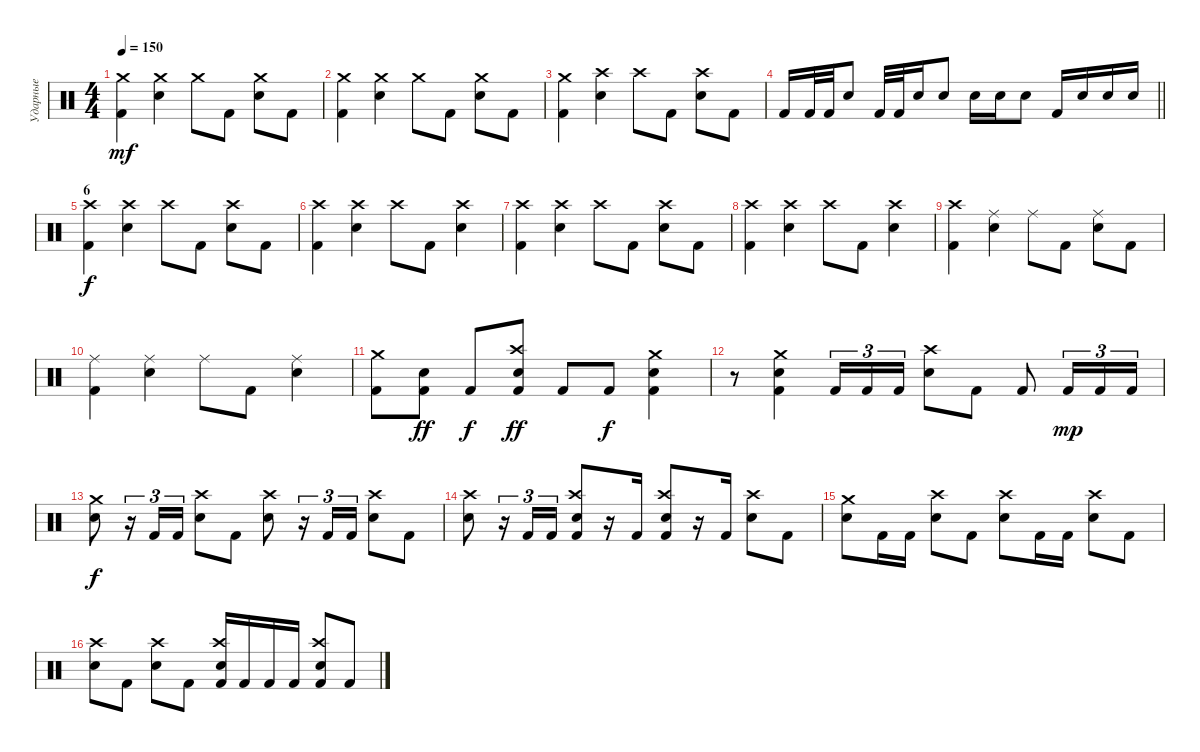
\track ("Ударные" "Ударные") {instrument percussion}
\staff {score}
\articulation defaults
\ts (4 4)
\tempo 150
\clef neutral
\ks c
("Crash medium (hit)" "Kick (hit) 2").4{dy mf} ("Crash medium (hit)" "Electric Snare (hit)").4 "Crash medium (hit)".8 "Kick (hit) 2".8 ("Crash medium (hit)" "Electric Snare (hit)").8 "Kick (hit) 2".8 |
("Crash medium (hit)" "Kick (hit) 2").4 ("Crash medium (hit)" "Electric Snare (hit)").4 "Crash medium (hit)".8 "Kick (hit) 2".8 ("Crash medium (hit)" "Electric Snare (hit)").8 "Kick (hit) 2".8 |
("Crash medium (hit)" "Kick (hit) 2").4 ("Crash high (hit)" "Electric Snare (hit)").4 "Crash high (hit)".8 "Kick (hit) 2".8 ("Crash high (hit)" "Electric Snare (hit)").8 "Kick (hit) 2".8 |
\barLineRight lightlight "Kick (hit) 2".16 "Kick (hit) 2".32 "Kick (hit) 2".32 "Electric Snare (hit)".8 "Kick (hit) 2".32 "Kick (hit) 2".32 "Electric Snare (hit)".16 "Electric Snare (hit)".8 "Electric Snare (hit)".16 "Electric Snare (hit)".16 "Electric Snare (hit)".8 "Kick (hit) 2".16 "Electric Snare (hit)".16 "Electric Snare (hit)".16 "Electric Snare (hit)".16
|
\section ("" "6")
("Crash high (hit)" "Kick (hit) 2").4{dy f} ("Crash high (hit)" "Electric Snare (hit)").4 "Crash high (hit)".8 "Kick (hit) 2".8 ("Crash high (hit)" "Electric Snare (hit)").8 "Kick (hit) 2".8 |
("Crash high (hit)" "Kick (hit) 2").4 ("Crash high (hit)" "Electric Snare (hit)").4 "Crash high (hit)".8 "Kick (hit) 2".8 ("Crash high (hit)" "Electric Snare (hit)").4 |
("Crash high (hit)" "Kick (hit) 2").4 ("Crash high (hit)" "Electric Snare (hit)").4 "Crash high (hit)".8 "Kick (hit) 2".8 ("Crash high (hit)" "Electric Snare (hit)").8 "Kick (hit) 2".8 |
("Crash high (hit)" "Kick (hit) 2").4 ("Crash high (hit)" "Electric Snare (hit)").4 "Crash high (hit)".8 "Kick (hit) 2".8 ("Crash high (hit)" "Electric Snare (hit)").4 |
("Crash high (hit)" "Kick (hit) 2").4 ("Ride (middle)" "Electric Snare (hit)").4 "Ride (middle)".8 "Kick (hit) 2".8 ("Ride (middle)" "Electric Snare (hit)").8 "Kick (hit) 2".8 |
("Ride (middle)" "Kick (hit) 2").4 ("Ride (middle)" "Electric Snare (hit)").4 "Ride (middle)".8 "Kick (hit) 2".8 ("Ride (middle)" "Electric Snare (hit)").4 |
("Crash medium (hit)" "Kick (hit) 2").8 ("Electric Snare (hit)" "Kick (hit) 2").8{dy ff} "Kick (hit) 2".8{dy f} ("Crash high (hit)" "Snare (hit) 2" "Kick (hit) 2").8{dy ff} "Kick (hit) 2".8 "Kick (hit) 2".8{dy f} ("Crash medium (hit)" "Electric Snare (hit)" "Kick (hit) 2").4 |
r.8 ("Crash medium (hit)" "Electric Snare (hit)" "Kick (hit) 2").4 "Kick (hit) 2".16{tu (3 2)} "Kick (hit) 2".16{tu (3 2)} "Kick (hit) 2".16{tu (3 2)} ("Crash high (hit)" "Electric Snare (hit)").8 "Kick (hit) 2".8 "Kick (hit) 2".8 "Kick (hit) 2".16{tu (3 2) dy mp} "Kick (hit) 2".16{tu (3 2)} "Kick (hit) 2".16{tu (3 2)} |
("Crash medium (hit)" "Electric Snare (hit)").8{dy f} r.16{tu (3 2)} "Kick (hit) 2".16{tu (3 2)} "Kick (hit) 2".16{tu (3 2)} ("Crash high (hit)" "Snare (hit) 2").8 "Kick (hit) 2".8 ("Crash high (hit)" "Snare (hit) 2").8 r.16{tu (3 2)} "Kick (hit) 2".16{tu (3 2)} "Kick (hit) 2".16{tu (3 2)} ("Crash high (hit)" "Snare (hit) 2").8 "Kick (hit) 2".8 |
("Crash high (hit)" "Snare (hit) 2").8 r.16{tu (3 2)} "Kick (hit) 2".16{tu (3 2)} "Kick (hit) 2".16{tu (3 2)} ("Crash high (hit)" "Snare (hit) 2" "Kick (hit) 2").8 r.16 "Kick (hit) 2".16 ("Crash high (hit)" "Snare (hit) 2" "Kick (hit) 2").8 r.16 "Kick (hit) 2".16 ("Crash high (hit)" "Snare (hit) 2").8 "Kick (hit) 2".8 |
("Crash medium (hit)" "Electric Snare (hit)").8 "Kick (hit) 2".16 "Kick (hit) 2".16 ("Crash high (hit)" "Snare (hit) 2").8 "Kick (hit) 2".8 ("Crash high (hit)" "Snare (hit) 2").8 "Kick (hit) 2".16 "Kick (hit) 2".16 ("Crash high (hit)" "Snare (hit) 2").8 "Kick (hit) 2".8 |
("Crash high (hit)" "Snare (hit) 2").8 "Kick (hit) 2".8 ("Crash high (hit)" "Snare (hit) 2").8 "Kick (hit) 2".8 ("Crash high (hit)" "Snare (hit) 2" "Kick (hit) 2").16 "Kick (hit) 2".16 "Kick (hit) 2".16 "Kick (hit) 2".16 ("Crash high (hit)" "Snare (hit) 2" "Kick (hit) 2").8 "Kick (hit) 2".8
